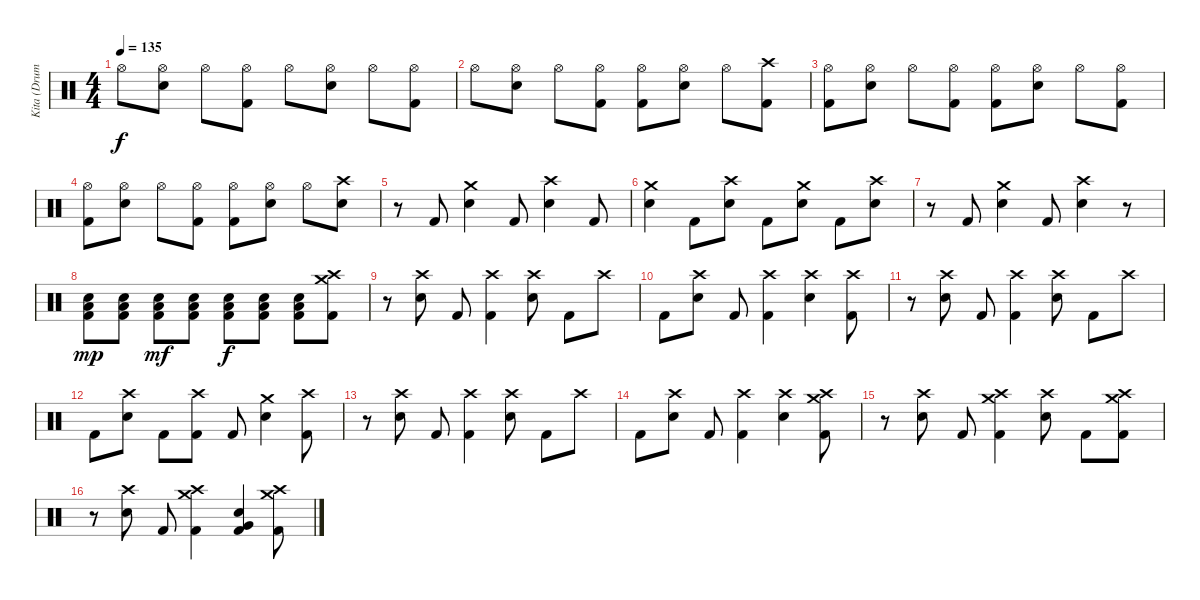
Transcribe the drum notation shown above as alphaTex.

\track ("Kita (Drums)" "Kita (Drum") {instrument percussion}
\staff {score}
\articulation defaults
\ts (4 4)
\tempo 135
\clef neutral
\ks c "Hi-Hat (open)".8{dy f}
("Hi-Hat (open)" "Electric Snare (hit)").8 "Hi-Hat (open)".8 ("Hi-Hat (open)" "Kick (hit) 2").8 "Hi-Hat (open)".8 ("Hi-Hat (open)" "Electric Snare (hit)").8 "Hi-Hat (open)".8 ("Hi-Hat (open)" "Kick (hit) 2").8 |
"Hi-Hat (open)".8 ("Hi-Hat (open)" "Electric Snare (hit)").8 "Hi-Hat (open)".8 ("Hi-Hat (open)" "Kick (hit) 2").8 ("Hi-Hat (open)" "Kick (hit) 2").8 ("Hi-Hat (open)" "Electric Snare (hit)").8 "Hi-Hat (open)".8 ("Crash high (hit)" "Kick (hit) 2").8 |
("Hi-Hat (open)" "Kick (hit) 2").8 ("Hi-Hat (open)" "Electric Snare (hit)").8 "Hi-Hat (open)".8 ("Hi-Hat (open)" "Kick (hit) 2").8 ("Hi-Hat (open)" "Kick (hit) 2").8 ("Hi-Hat (open)" "Electric Snare (hit)").8 "Hi-Hat (open)".8 ("Hi-Hat (open)" "Kick (hit) 2").8 |
("Hi-Hat (open)" "Kick (hit) 2").8 ("Hi-Hat (open)" "Electric Snare (hit)").8 "Hi-Hat (open)".8 ("Hi-Hat (open)" "Kick (hit) 2").8 ("Hi-Hat (open)" "Kick (hit) 2").8 ("Hi-Hat (open)" "Electric Snare (hit)").8 "Hi-Hat (open)".8 ("Crash high (hit)" "Electric Snare (hit)").8 |
r.8 "Kick (hit) 2".8 ("Crash medium (hit)" "Electric Snare (hit)").4 "Kick (hit) 2".8 ("Crash high (hit)" "Electric Snare (hit)").4 "Kick (hit) 2".8 |
("Crash medium (hit)" "Electric Snare (hit)").4 "Kick (hit) 2".8 ("Crash high (hit)" "Electric Snare (hit)").8 "Kick (hit) 2".8 ("Crash medium (hit)" "Electric Snare (hit)").8 "Kick (hit) 2".8 ("Crash high (hit)" "Electric Snare (hit)").8 |
r.8 "Kick (hit) 2".8 ("Crash medium (hit)" "Electric Snare (hit)").4 "Kick (hit) 2".8 ("Crash high (hit)" "Electric Snare (hit)").4 r.8 |
("Low Floor Tom (hit)" "Electric Snare (hit)" "Kick (hit) 2").8{dy mp} ("Low Floor Tom (hit)" "Electric Snare (hit)" "Kick (hit) 2").8 ("Low Floor Tom (hit)" "Electric Snare (hit)" "Kick (hit) 2").8{dy mf} ("Low Floor Tom (hit)" "Electric Snare (hit)" "Kick (hit) 2").8 ("Low Floor Tom (hit)" "Electric Snare (hit)" "Kick (hit) 2").8{dy f} ("Low Floor Tom (hit)" "Electric Snare (hit)" "Kick (hit) 2").8 ("Low Floor Tom (hit)" "Electric Snare (hit)" "Kick (hit) 2").8 ("Crash medium (hit)" "Crash high (hit)" "Kick (hit) 2").8 |
r.8 ("Crash high (hit)" "Electric Snare (hit)").8 "Kick (hit) 2".8 ("Crash high (hit)" "Kick (hit) 2").4 ("Crash high (hit)" "Electric Snare (hit)").8 "Kick (hit) 2".8 "Crash high (hit)".8 |
"Kick (hit) 2".8 ("Crash high (hit)" "Electric Snare (hit)").8 "Kick (hit) 2".8 ("Crash high (hit)" "Kick (hit) 2").4 ("Crash high (hit)" "Electric Snare (hit)").4 ("Crash high (hit)" "Kick (hit) 2").8 |
r.8 ("Crash high (hit)" "Electric Snare (hit)").8 "Kick (hit) 2".8 ("Crash high (hit)" "Kick (hit) 2").4 ("Crash high (hit)" "Electric Snare (hit)").8 "Kick (hit) 2".8 "Crash high (hit)".8 |
"Kick (hit) 2".8 ("Crash high (hit)" "Electric Snare (hit)").8 "Kick (hit) 2".8 ("Crash high (hit)" "Kick (hit) 2").8 "Kick (hit) 2".8 ("Crash medium (hit)" "Electric Snare (hit)").4 ("Crash high (hit)" "Kick (hit) 2").8 |
r.8 ("Crash high (hit)" "Electric Snare (hit)").8 "Kick (hit) 2".8 ("Crash high (hit)" "Kick (hit) 2").4 ("Crash high (hit)" "Electric Snare (hit)").8 "Kick (hit) 2".8 "Crash high (hit)".8 |
"Kick (hit) 2".8 ("Crash high (hit)" "Electric Snare (hit)").8 "Kick (hit) 2".8 ("Crash high (hit)" "Kick (hit) 2").4 ("Crash high (hit)" "Electric Snare (hit)").4 ("Crash medium (hit)" "Crash high (hit)" "Kick (hit) 2").8 |
r.8 ("Crash high (hit)" "Electric Snare (hit)").8 "Kick (hit) 2".8 ("Crash medium (hit)" "Crash high (hit)" "Kick (hit) 2").4 ("Crash high (hit)" "Electric Snare (hit)").8 "Kick (hit) 2".8 ("Crash medium (hit)" "Crash high (hit)" "Kick (hit) 2").8 |
r.8 ("Crash high (hit)" "Electric Snare (hit)").8 "Kick (hit) 2".8 ("Crash medium (hit)" "Crash high (hit)" "Kick (hit) 2").4 ("Very Low Tom (hit)" "Electric Snare (hit)" "Kick (hit) 2").4 ("Crash medium (hit)" "Crash high (hit)" "Kick (hit) 2").8
